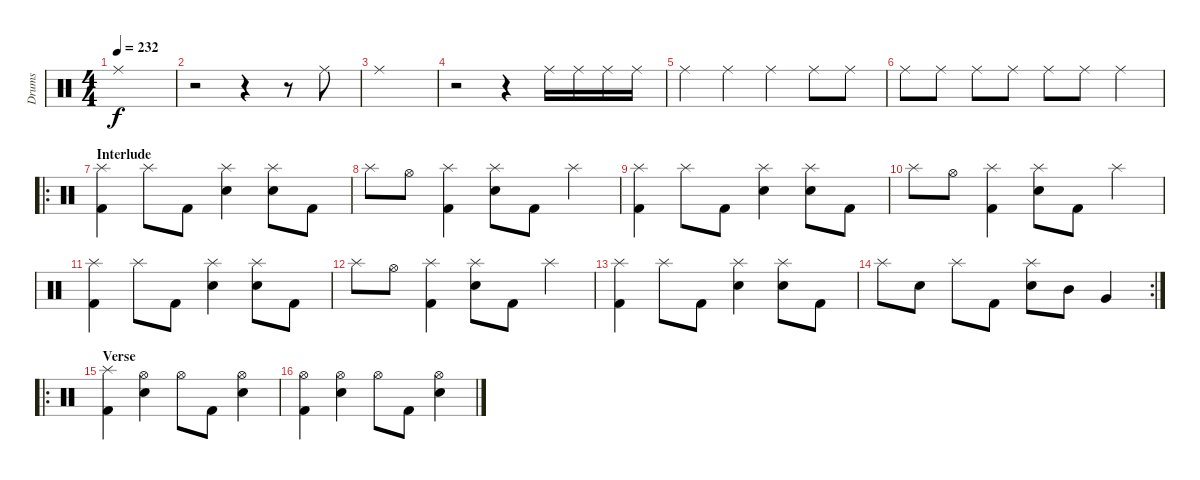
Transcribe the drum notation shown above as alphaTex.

\track ("Drums" "Drums") {instrument percussion}
\staff {score}
\articulation defaults
\ts (4 4)
\tempo 232
\clef neutral
\ks c "Ride (middle)".1{dy f}
|
r.2 r.4 r.8 "Ride (middle)".8 |
"Ride (middle)".1 |
r.2 r.4 "Ride (middle)".16 "Ride (middle)".16 "Ride (middle)".16 "Ride (middle)".16 |
"Ride (middle)".4 "Ride (middle)".4 "Ride (middle)".4 "Ride (middle)".8 "Ride (middle)".8 |
"Ride (middle)".8 "Ride (middle)".8 "Ride (middle)".8 "Ride (middle)".8 "Ride (middle)".8 "Ride (middle)".8 "Ride (middle)".4 |
\ro
\section ("" "Interlude")
("Splash (hit)" "Kick (hit) 2").4 "Splash (hit)".8 "Kick (hit) 2".8 ("Splash (hit)" "Electric Snare (hit)").4 ("Splash (hit)" "Electric Snare (hit)").8 "Kick (hit) 2".8 |
"Splash (hit)".8 "Hi-Hat (open)".8 ("Splash (hit)" "Kick (hit) 2").4 ("Splash (hit)" "Electric Snare (hit)").8 "Kick (hit) 2".8 "Splash (hit)".4 |
("Splash (hit)" "Kick (hit) 2").4 "Splash (hit)".8 "Kick (hit) 2".8 ("Splash (hit)" "Electric Snare (hit)").4 ("Splash (hit)" "Electric Snare (hit)").8 "Kick (hit) 2".8 |
"Splash (hit)".8 "Hi-Hat (open)".8 ("Splash (hit)" "Kick (hit) 2").4 ("Splash (hit)" "Electric Snare (hit)").8 "Kick (hit) 2".8 "Splash (hit)".4 |
("Splash (hit)" "Kick (hit) 2").4 "Splash (hit)".8 "Kick (hit) 2".8 ("Splash (hit)" "Electric Snare (hit)").4 ("Splash (hit)" "Electric Snare (hit)").8 "Kick (hit) 2".8 |
"Splash (hit)".8 "Hi-Hat (open)".8 ("Splash (hit)" "Kick (hit) 2").4 ("Splash (hit)" "Electric Snare (hit)").8 "Kick (hit) 2".8 "Splash (hit)".4 |
("Splash (hit)" "Kick (hit) 2").4 "Splash (hit)".8 "Kick (hit) 2".8 ("Splash (hit)" "Electric Snare (hit)").4 ("Splash (hit)" "Electric Snare (hit)").8 "Kick (hit) 2".8 |
\rc 2 "Splash (hit)".8 "Electric Snare (hit)".8 "Splash (hit)".8 "Kick (hit) 2".8
("Splash (hit)" "Electric Snare (hit)").8 "Mid Tom (hit)".8 "Very Low Tom (hit)".4 |
\ro
\section ("" "Verse")
("Splash (hit)" "Kick (hit) 2").4 ("Hi-Hat (open)" "Electric Snare (hit)").4 "Hi-Hat (open)".8 "Kick (hit) 2".8 ("Hi-Hat (open)" "Electric Snare (hit)").4 |
("Hi-Hat (open)" "Kick (hit) 2").4 ("Hi-Hat (open)" "Electric Snare (hit)").4 "Hi-Hat (open)".8 "Kick (hit) 2".8 ("Hi-Hat (open)" "Electric Snare (hit)").4
